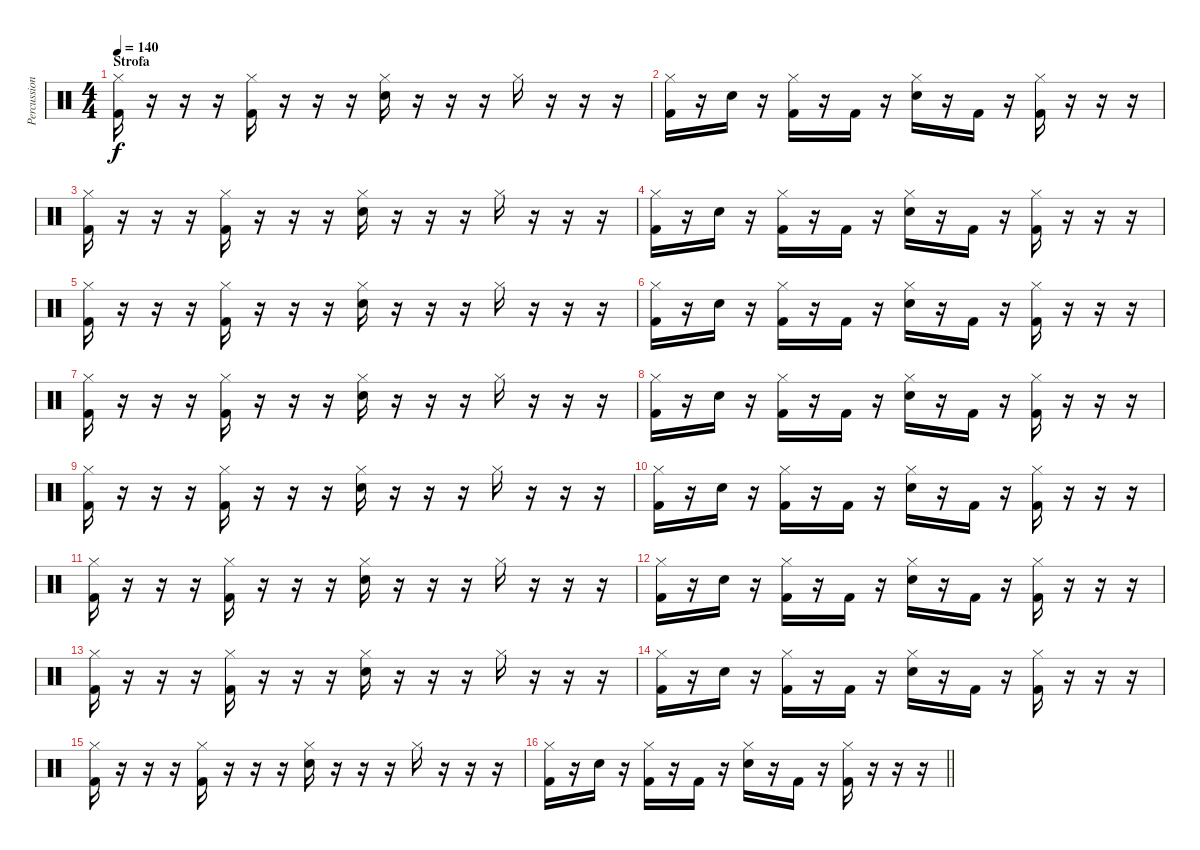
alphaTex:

\track ("Percussion" "Percussion") {instrument percussion}
\staff {score}
\articulation defaults
\ts (4 4)
\section ("" "Strofa")
\tempo 140
\clef neutral
\ks c
("Hi-Hat (closed)" "Kick (hit) 2").16{dy f} r.16 r.16 r.16 ("Hi-Hat (closed)" "Kick (hit) 2").16 r.16 r.16 r.16 ("Hi-Hat (closed)" "Snare (hit) 2").16 r.16 r.16 r.16 "Hi-Hat (closed)".16 r.16 r.16 r.16 |
("Hi-Hat (closed)" "Kick (hit) 2").16 r.16 "Snare (hit) 2".16 r.16 ("Hi-Hat (closed)" "Kick (hit) 2").16 r.16 "Kick (hit) 2".16 r.16 ("Hi-Hat (closed)" "Snare (hit) 2").16 r.16 "Kick (hit) 2".16 r.16 ("Hi-Hat (closed)" "Kick (hit) 2").16 r.16 r.16 r.16 |
("Hi-Hat (closed)" "Kick (hit) 2").16 r.16 r.16 r.16 ("Hi-Hat (closed)" "Kick (hit) 2").16 r.16 r.16 r.16 ("Hi-Hat (closed)" "Snare (hit) 2").16 r.16 r.16 r.16 "Hi-Hat (closed)".16 r.16 r.16 r.16 |
("Hi-Hat (closed)" "Kick (hit) 2").16 r.16 "Snare (hit) 2".16 r.16 ("Hi-Hat (closed)" "Kick (hit) 2").16 r.16 "Kick (hit) 2".16 r.16 ("Hi-Hat (closed)" "Snare (hit) 2").16 r.16 "Kick (hit) 2".16 r.16 ("Hi-Hat (closed)" "Kick (hit) 2").16 r.16 r.16 r.16 |
("Hi-Hat (closed)" "Kick (hit) 2").16 r.16 r.16 r.16 ("Hi-Hat (closed)" "Kick (hit) 2").16 r.16 r.16 r.16 ("Hi-Hat (closed)" "Snare (hit) 2").16 r.16 r.16 r.16 "Hi-Hat (closed)".16 r.16 r.16 r.16 |
("Hi-Hat (closed)" "Kick (hit) 2").16 r.16 "Snare (hit) 2".16 r.16 ("Hi-Hat (closed)" "Kick (hit) 2").16 r.16 "Kick (hit) 2".16 r.16 ("Hi-Hat (closed)" "Snare (hit) 2").16 r.16 "Kick (hit) 2".16 r.16 ("Hi-Hat (closed)" "Kick (hit) 2").16 r.16 r.16 r.16 |
("Hi-Hat (closed)" "Kick (hit) 2").16 r.16 r.16 r.16 ("Hi-Hat (closed)" "Kick (hit) 2").16 r.16 r.16 r.16 ("Hi-Hat (closed)" "Snare (hit) 2").16 r.16 r.16 r.16 "Hi-Hat (closed)".16 r.16 r.16 r.16 |
("Hi-Hat (closed)" "Kick (hit) 2").16 r.16 "Snare (hit) 2".16 r.16 ("Hi-Hat (closed)" "Kick (hit) 2").16 r.16 "Kick (hit) 2".16 r.16 ("Hi-Hat (closed)" "Snare (hit) 2").16 r.16 "Kick (hit) 2".16 r.16 ("Hi-Hat (closed)" "Kick (hit) 2").16 r.16 r.16 r.16 |
("Hi-Hat (closed)" "Kick (hit) 2").16 r.16 r.16 r.16 ("Hi-Hat (closed)" "Kick (hit) 2").16 r.16 r.16 r.16 ("Hi-Hat (closed)" "Snare (hit) 2").16 r.16 r.16 r.16 "Hi-Hat (closed)".16 r.16 r.16 r.16 |
("Hi-Hat (closed)" "Kick (hit) 2").16 r.16 "Snare (hit) 2".16 r.16 ("Hi-Hat (closed)" "Kick (hit) 2").16 r.16 "Kick (hit) 2".16 r.16 ("Hi-Hat (closed)" "Snare (hit) 2").16 r.16 "Kick (hit) 2".16 r.16 ("Hi-Hat (closed)" "Kick (hit) 2").16 r.16 r.16 r.16 |
("Hi-Hat (closed)" "Kick (hit) 2").16 r.16 r.16 r.16 ("Hi-Hat (closed)" "Kick (hit) 2").16 r.16 r.16 r.16 ("Hi-Hat (closed)" "Snare (hit) 2").16 r.16 r.16 r.16 "Hi-Hat (closed)".16 r.16 r.16 r.16 |
("Hi-Hat (closed)" "Kick (hit) 2").16 r.16 "Snare (hit) 2".16 r.16 ("Hi-Hat (closed)" "Kick (hit) 2").16 r.16 "Kick (hit) 2".16 r.16 ("Hi-Hat (closed)" "Snare (hit) 2").16 r.16 "Kick (hit) 2".16 r.16 ("Hi-Hat (closed)" "Kick (hit) 2").16 r.16 r.16 r.16 |
("Hi-Hat (closed)" "Kick (hit) 2").16 r.16 r.16 r.16 ("Hi-Hat (closed)" "Kick (hit) 2").16 r.16 r.16 r.16 ("Hi-Hat (closed)" "Snare (hit) 2").16 r.16 r.16 r.16 "Hi-Hat (closed)".16 r.16 r.16 r.16 |
("Hi-Hat (closed)" "Kick (hit) 2").16 r.16 "Snare (hit) 2".16 r.16 ("Hi-Hat (closed)" "Kick (hit) 2").16 r.16 "Kick (hit) 2".16 r.16 ("Hi-Hat (closed)" "Snare (hit) 2").16 r.16 "Kick (hit) 2".16 r.16 ("Hi-Hat (closed)" "Kick (hit) 2").16 r.16 r.16 r.16 |
("Hi-Hat (closed)" "Kick (hit) 2").16 r.16 r.16 r.16 ("Hi-Hat (closed)" "Kick (hit) 2").16 r.16 r.16 r.16 ("Hi-Hat (closed)" "Snare (hit) 2").16 r.16 r.16 r.16 "Hi-Hat (closed)".16 r.16 r.16 r.16 |
\barLineRight lightlight
("Hi-Hat (closed)" "Kick (hit) 2").16 r.16 "Snare (hit) 2".16 r.16 ("Hi-Hat (closed)" "Kick (hit) 2").16 r.16 "Kick (hit) 2".16 r.16 ("Hi-Hat (closed)" "Snare (hit) 2").16 r.16 "Kick (hit) 2".16 r.16 ("Hi-Hat (closed)" "Kick (hit) 2").16 r.16 r.16 r.16
